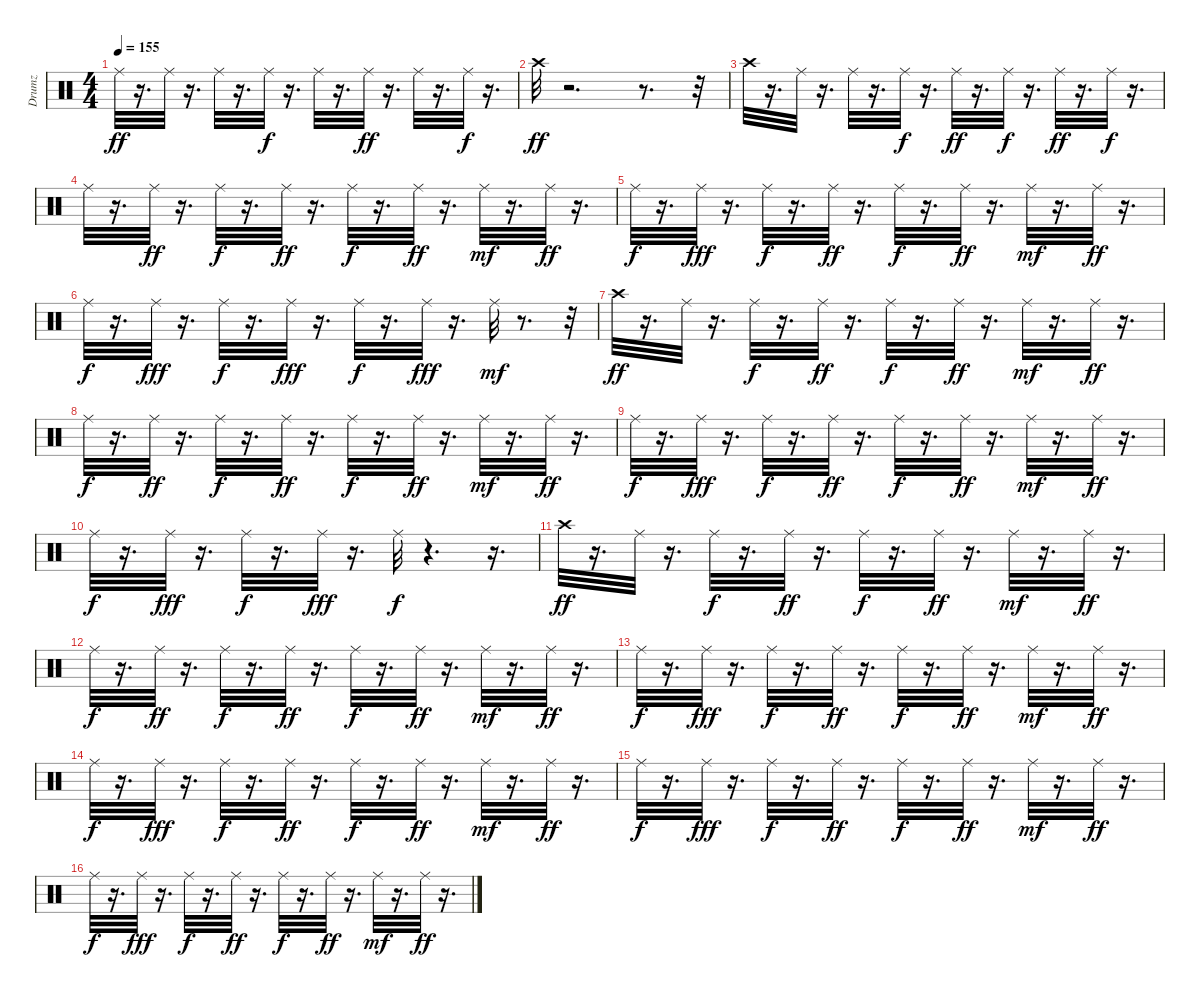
\track ("Drumz" "Drumz") {instrument percussion}
\staff {score}
\articulation defaults
\ts (4 4)
\tempo 155
\clef neutral
\ks c "Ride (middle)".32{dy ff}
r.16{d} "Ride (middle)".32 r.16{d} "Ride (middle)".32 r.16{d} "Ride (middle)".32{dy f} r.16{d} "Ride (middle)".32 r.16{d} "Ride (middle)".32{dy ff} r.16{d} "Ride (middle)".32 r.16{d} "Ride (middle)".32{dy f} r.16{d} |
"Crash high (hit)".32{dy ff} r.2{d} r.8{d} r.32 |
"Crash high (hit)".32 r.16{d} "Ride (middle)".32 r.16{d} "Ride (middle)".32 r.16{d} "Ride (middle)".32{dy f} r.16{d} "Ride (middle)".32{dy ff} r.16{d} "Ride (middle)".32{dy f} r.16{d} "Ride (middle)".32{dy ff} r.16{d} "Ride (middle)".32{dy f} r.16{d} |
"Ride (middle)".32 r.16{d} "Ride (middle)".32{dy ff} r.16{d} "Ride (middle)".32{dy f} r.16{d} "Ride (middle)".32{dy ff} r.16{d} "Ride (middle)".32{dy f} r.16{d} "Ride (middle)".32{dy ff} r.16{d} "Ride (middle)".32{dy mf} r.16{d} "Ride (middle)".32{dy ff} r.16{d} |
"Ride (middle)".32{dy f} r.16{d} "Ride (middle)".32{dy fff} r.16{d} "Ride (middle)".32{dy f} r.16{d} "Ride (middle)".32{dy ff} r.16{d} "Ride (middle)".32{dy f} r.16{d} "Ride (middle)".32{dy ff} r.16{d} "Ride (middle)".32{dy mf} r.16{d} "Ride (middle)".32{dy ff} r.16{d} |
"Ride (middle)".32{dy f} r.16{d} "Ride (middle)".32{dy fff} r.16{d} "Ride (middle)".32{dy f} r.16{d} "Ride (middle)".32{dy fff} r.16{d} "Ride (middle)".32{dy f} r.16{d} "Ride (middle)".32{dy fff} r.16{d} "Ride (middle)".32{dy mf} r.8{d} r.32 |
"Crash high (hit)".32{dy ff} r.16{d} "Ride (middle)".32 r.16{d} "Ride (middle)".32{dy f} r.16{d} "Ride (middle)".32{dy ff} r.16{d} "Ride (middle)".32{dy f} r.16{d} "Ride (middle)".32{dy ff} r.16{d} "Ride (middle)".32{dy mf} r.16{d} "Ride (middle)".32{dy ff} r.16{d} |
"Ride (middle)".32{dy f} r.16{d} "Ride (middle)".32{dy ff} r.16{d} "Ride (middle)".32{dy f} r.16{d} "Ride (middle)".32{dy ff} r.16{d} "Ride (middle)".32{dy f} r.16{d} "Ride (middle)".32{dy ff} r.16{d} "Ride (middle)".32{dy mf} r.16{d} "Ride (middle)".32{dy ff} r.16{d} |
"Ride (middle)".32{dy f} r.16{d} "Ride (middle)".32{dy fff} r.16{d} "Ride (middle)".32{dy f} r.16{d} "Ride (middle)".32{dy ff} r.16{d} "Ride (middle)".32{dy f} r.16{d} "Ride (middle)".32{dy ff} r.16{d} "Ride (middle)".32{dy mf} r.16{d} "Ride (middle)".32{dy ff} r.16{d} |
"Ride (middle)".32{dy f} r.16{d} "Ride (middle)".32{dy fff} r.16{d} "Ride (middle)".32{dy f} r.16{d} "Ride (middle)".32{dy fff} r.16{d} "Ride (middle)".32{dy f} r.4{d} r.16{d} |
"Crash high (hit)".32{dy ff} r.16{d} "Ride (middle)".32 r.16{d} "Ride (middle)".32{dy f} r.16{d} "Ride (middle)".32{dy ff} r.16{d} "Ride (middle)".32{dy f} r.16{d} "Ride (middle)".32{dy ff} r.16{d} "Ride (middle)".32{dy mf} r.16{d} "Ride (middle)".32{dy ff} r.16{d} |
"Ride (middle)".32{dy f} r.16{d} "Ride (middle)".32{dy ff} r.16{d} "Ride (middle)".32{dy f} r.16{d} "Ride (middle)".32{dy ff} r.16{d} "Ride (middle)".32{dy f} r.16{d} "Ride (middle)".32{dy ff} r.16{d} "Ride (middle)".32{dy mf} r.16{d} "Ride (middle)".32{dy ff} r.16{d} |
"Ride (middle)".32{dy f} r.16{d} "Ride (middle)".32{dy fff} r.16{d} "Ride (middle)".32{dy f} r.16{d} "Ride (middle)".32{dy ff} r.16{d} "Ride (middle)".32{dy f} r.16{d} "Ride (middle)".32{dy ff} r.16{d} "Ride (middle)".32{dy mf} r.16{d} "Ride (middle)".32{dy ff} r.16{d} |
"Ride (middle)".32{dy f} r.16{d} "Ride (middle)".32{dy fff} r.16{d} "Ride (middle)".32{dy f} r.16{d} "Ride (middle)".32{dy ff} r.16{d} "Ride (middle)".32{dy f} r.16{d} "Ride (middle)".32{dy ff} r.16{d} "Ride (middle)".32{dy mf} r.16{d} "Ride (middle)".32{dy ff} r.16{d} |
"Ride (middle)".32{dy f} r.16{d} "Ride (middle)".32{dy fff} r.16{d} "Ride (middle)".32{dy f} r.16{d} "Ride (middle)".32{dy ff} r.16{d} "Ride (middle)".32{dy f} r.16{d} "Ride (middle)".32{dy ff} r.16{d} "Ride (middle)".32{dy mf} r.16{d} "Ride (middle)".32{dy ff} r.16{d} |
"Ride (middle)".32{dy f} r.16{d} "Ride (middle)".32{dy fff} r.16{d} "Ride (middle)".32{dy f} r.16{d} "Ride (middle)".32{dy ff} r.16{d} "Ride (middle)".32{dy f} r.16{d} "Ride (middle)".32{dy ff} r.16{d} "Ride (middle)".32{dy mf} r.16{d} "Ride (middle)".32{dy ff} r.16{d}
